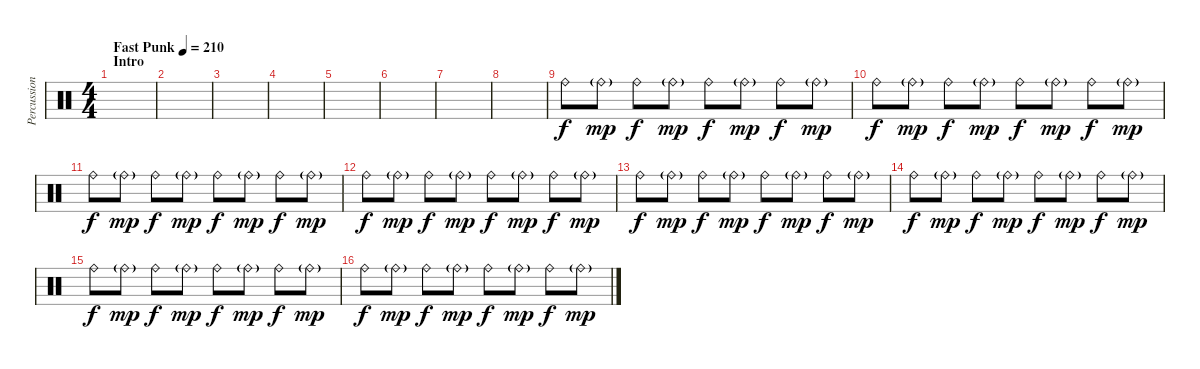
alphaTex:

\track ("Percussion" "Percussion") {instrument percussion}
\staff {score}
\articulation defaults
\ts (4 4)
\section ("" "Intro")
\tempo (210 "Fast Punk")
\clef neutral
\ks c
|
|
|
|
|
|
|
|
"Ride (bell)".8 "Ride (bell)"{g}.8{dy mp} "Ride (bell)".8{dy f} "Ride (bell)"{g}.8{dy mp} "Ride (bell)".8{dy f} "Ride (bell)"{g}.8{dy mp} "Ride (bell)".8{dy f} "Ride (bell)"{g}.8{dy mp} |
"Ride (bell)".8{dy f} "Ride (bell)"{g}.8{dy mp} "Ride (bell)".8{dy f} "Ride (bell)"{g}.8{dy mp} "Ride (bell)".8{dy f} "Ride (bell)"{g}.8{dy mp} "Ride (bell)".8{dy f} "Ride (bell)"{g}.8{dy mp} |
"Ride (bell)".8{dy f} "Ride (bell)"{g}.8{dy mp} "Ride (bell)".8{dy f} "Ride (bell)"{g}.8{dy mp} "Ride (bell)".8{dy f} "Ride (bell)"{g}.8{dy mp} "Ride (bell)".8{dy f} "Ride (bell)"{g}.8{dy mp} |
"Ride (bell)".8{dy f} "Ride (bell)"{g}.8{dy mp} "Ride (bell)".8{dy f} "Ride (bell)"{g}.8{dy mp} "Ride (bell)".8{dy f} "Ride (bell)"{g}.8{dy mp} "Ride (bell)".8{dy f} "Ride (bell)"{g}.8{dy mp} |
"Ride (bell)".8{dy f} "Ride (bell)"{g}.8{dy mp} "Ride (bell)".8{dy f} "Ride (bell)"{g}.8{dy mp} "Ride (bell)".8{dy f} "Ride (bell)"{g}.8{dy mp} "Ride (bell)".8{dy f} "Ride (bell)"{g}.8{dy mp} |
"Ride (bell)".8{dy f} "Ride (bell)"{g}.8{dy mp} "Ride (bell)".8{dy f} "Ride (bell)"{g}.8{dy mp} "Ride (bell)".8{dy f} "Ride (bell)"{g}.8{dy mp} "Ride (bell)".8{dy f} "Ride (bell)"{g}.8{dy mp} |
"Ride (bell)".8{dy f} "Ride (bell)"{g}.8{dy mp} "Ride (bell)".8{dy f} "Ride (bell)"{g}.8{dy mp} "Ride (bell)".8{dy f} "Ride (bell)"{g}.8{dy mp} "Ride (bell)".8{dy f} "Ride (bell)"{g}.8{dy mp} |
"Ride (bell)".8{dy f} "Ride (bell)"{g}.8{dy mp} "Ride (bell)".8{dy f} "Ride (bell)"{g}.8{dy mp} "Ride (bell)".8{dy f} "Ride (bell)"{g}.8{dy mp} "Ride (bell)".8{dy f} "Ride (bell)"{g}.8{dy mp}
